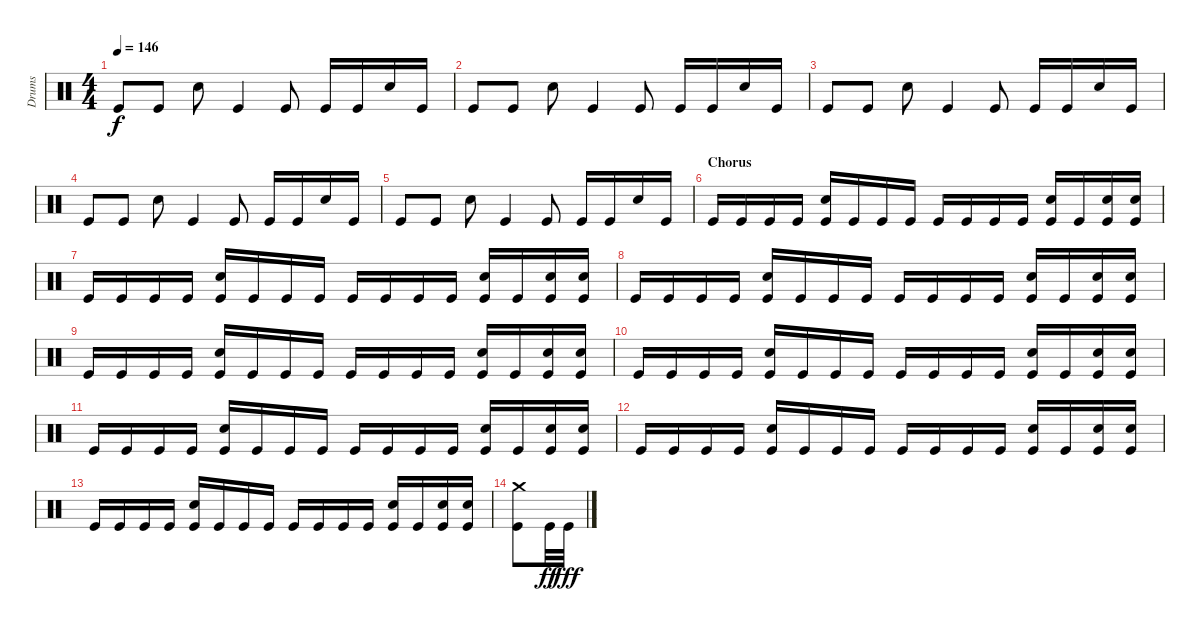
\track ("Drums" "Drums") {instrument percussion}
\staff {score}
\articulation defaults
\ts (4 4)
\tempo 146
\clef neutral
\ks c "Kick (hit)".8{dy f} "Kick (hit)".8 "Electric Snare (hit)".8 "Kick (hit)".4 "Kick (hit)".8 "Kick (hit)".16 "Kick (hit)".16 "Electric Snare (hit)".16 "Kick (hit)".16
|
"Kick (hit)".8 "Kick (hit)".8 "Electric Snare (hit)".8 "Kick (hit)".4 "Kick (hit)".8 "Kick (hit)".16 "Kick (hit)".16 "Electric Snare (hit)".16 "Kick (hit)".16 |
"Kick (hit)".8 "Kick (hit)".8 "Electric Snare (hit)".8 "Kick (hit)".4 "Kick (hit)".8 "Kick (hit)".16 "Kick (hit)".16 "Electric Snare (hit)".16 "Kick (hit)".16 |
"Kick (hit)".8 "Kick (hit)".8 "Electric Snare (hit)".8 "Kick (hit)".4 "Kick (hit)".8 "Kick (hit)".16 "Kick (hit)".16 "Electric Snare (hit)".16 "Kick (hit)".16 |
"Kick (hit)".8 "Kick (hit)".8 "Electric Snare (hit)".8 "Kick (hit)".4 "Kick (hit)".8 "Kick (hit)".16 "Kick (hit)".16 "Electric Snare (hit)".16 "Kick (hit)".16 |
\section ("" "Chorus")
"Kick (hit)".16 "Kick (hit)".16 "Kick (hit)".16 "Kick (hit)".16 ("Electric Snare (hit)" "Kick (hit)").16 "Kick (hit)".16 "Kick (hit)".16 "Kick (hit)".16 "Kick (hit)".16 "Kick (hit)".16 "Kick (hit)".16 "Kick (hit)".16 ("Electric Snare (hit)" "Kick (hit)").16 "Kick (hit)".16 ("Electric Snare (hit)" "Kick (hit)").16 ("Electric Snare (hit)" "Kick (hit)").16 |
"Kick (hit)".16 "Kick (hit)".16 "Kick (hit)".16 "Kick (hit)".16 ("Electric Snare (hit)" "Kick (hit)").16 "Kick (hit)".16 "Kick (hit)".16 "Kick (hit)".16 "Kick (hit)".16 "Kick (hit)".16 "Kick (hit)".16 "Kick (hit)".16 ("Electric Snare (hit)" "Kick (hit)").16 "Kick (hit)".16 ("Electric Snare (hit)" "Kick (hit)").16 ("Electric Snare (hit)" "Kick (hit)").16 |
"Kick (hit)".16 "Kick (hit)".16 "Kick (hit)".16 "Kick (hit)".16 ("Electric Snare (hit)" "Kick (hit)").16 "Kick (hit)".16 "Kick (hit)".16 "Kick (hit)".16 "Kick (hit)".16 "Kick (hit)".16 "Kick (hit)".16 "Kick (hit)".16 ("Electric Snare (hit)" "Kick (hit)").16 "Kick (hit)".16 ("Electric Snare (hit)" "Kick (hit)").16 ("Electric Snare (hit)" "Kick (hit)").16 |
"Kick (hit)".16 "Kick (hit)".16 "Kick (hit)".16 "Kick (hit)".16 ("Electric Snare (hit)" "Kick (hit)").16 "Kick (hit)".16 "Kick (hit)".16 "Kick (hit)".16 "Kick (hit)".16 "Kick (hit)".16 "Kick (hit)".16 "Kick (hit)".16 ("Electric Snare (hit)" "Kick (hit)").16 "Kick (hit)".16 ("Electric Snare (hit)" "Kick (hit)").16 ("Electric Snare (hit)" "Kick (hit)").16 |
"Kick (hit)".16 "Kick (hit)".16 "Kick (hit)".16 "Kick (hit)".16 ("Electric Snare (hit)" "Kick (hit)").16 "Kick (hit)".16 "Kick (hit)".16 "Kick (hit)".16 "Kick (hit)".16 "Kick (hit)".16 "Kick (hit)".16 "Kick (hit)".16 ("Electric Snare (hit)" "Kick (hit)").16 "Kick (hit)".16 ("Electric Snare (hit)" "Kick (hit)").16 ("Electric Snare (hit)" "Kick (hit)").16 |
"Kick (hit)".16 "Kick (hit)".16 "Kick (hit)".16 "Kick (hit)".16 ("Electric Snare (hit)" "Kick (hit)").16 "Kick (hit)".16 "Kick (hit)".16 "Kick (hit)".16 "Kick (hit)".16 "Kick (hit)".16 "Kick (hit)".16 "Kick (hit)".16 ("Electric Snare (hit)" "Kick (hit)").16 "Kick (hit)".16 ("Electric Snare (hit)" "Kick (hit)").16 ("Electric Snare (hit)" "Kick (hit)").16 |
"Kick (hit)".16 "Kick (hit)".16 "Kick (hit)".16 "Kick (hit)".16 ("Electric Snare (hit)" "Kick (hit)").16 "Kick (hit)".16 "Kick (hit)".16 "Kick (hit)".16 "Kick (hit)".16 "Kick (hit)".16 "Kick (hit)".16 "Kick (hit)".16 ("Electric Snare (hit)" "Kick (hit)").16 "Kick (hit)".16 ("Electric Snare (hit)" "Kick (hit)").16 ("Electric Snare (hit)" "Kick (hit)").16 |
"Kick (hit)".16 "Kick (hit)".16 "Kick (hit)".16 "Kick (hit)".16 ("Electric Snare (hit)" "Kick (hit)").16 "Kick (hit)".16 "Kick (hit)".16 "Kick (hit)".16 "Kick (hit)".16 "Kick (hit)".16 "Kick (hit)".16 "Kick (hit)".16 ("Electric Snare (hit)" "Kick (hit)").16 "Kick (hit)".16 ("Electric Snare (hit)" "Kick (hit)").16 ("Electric Snare (hit)" "Kick (hit)").16 |
("Crash medium (hit)" "Kick (hit)").8 "Kick (hit)".32{dy ff} "Kick (hit)".32{dy fff}
